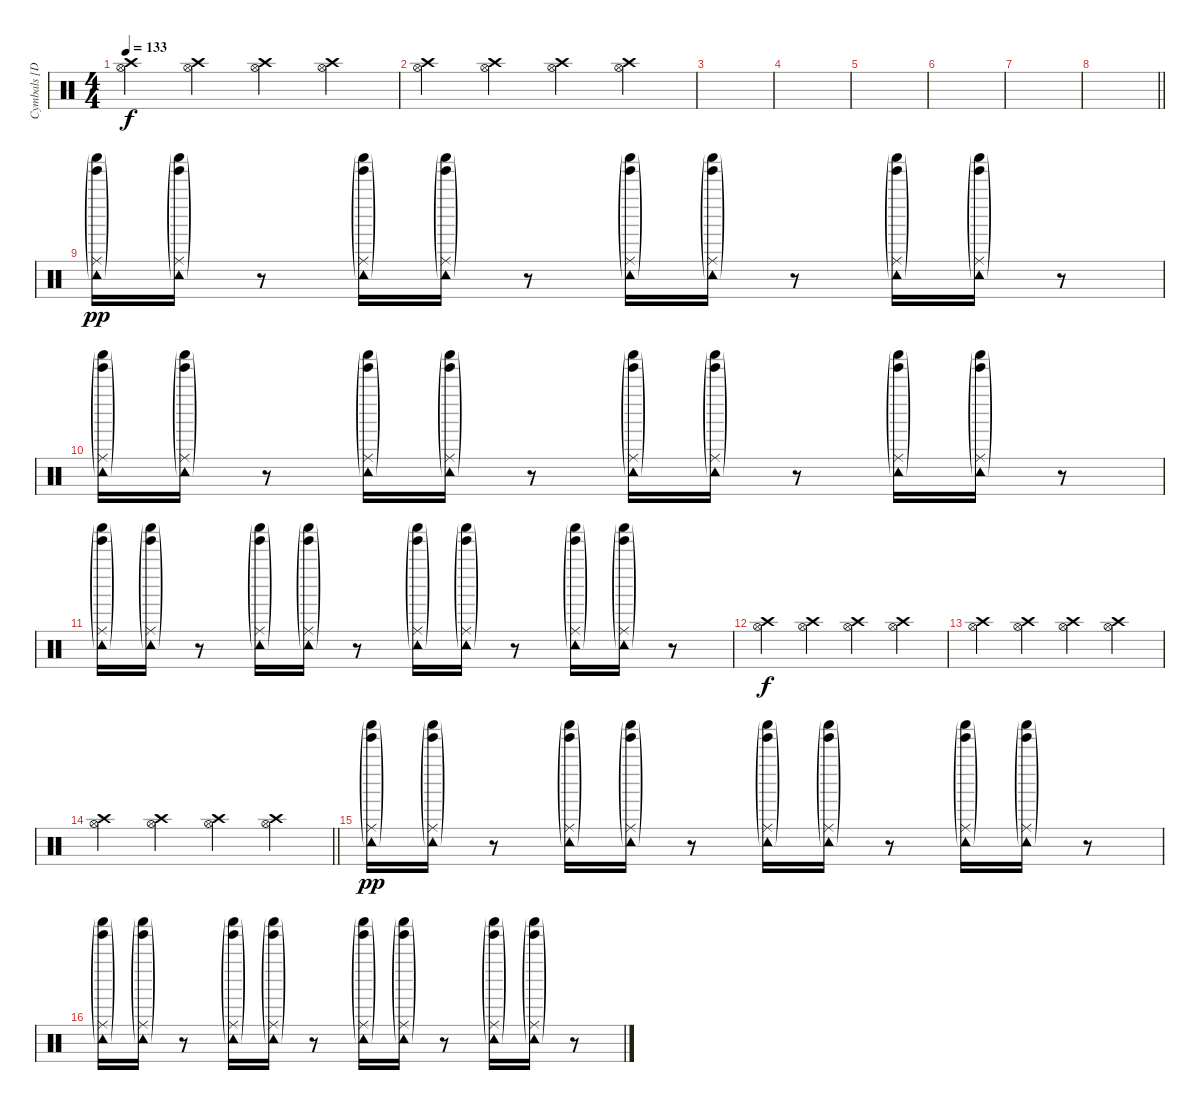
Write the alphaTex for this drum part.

\track ("Cymbals [Dave Grohl]" "Cymbals [D") {instrument percussion}
\staff {score}
\articulation defaults
\ts (4 4)
\tempo 133
\clef neutral
\ks c
("Hi-Hat (open)" "Crash high (hit)").4{dy f} ("Hi-Hat (open)" "Crash high (hit)").4 ("Hi-Hat (open)" "Crash high (hit)").4 ("Hi-Hat (open)" "Crash high (hit)").4 |
("Hi-Hat (open)" "Crash high (hit)").4 ("Hi-Hat (open)" "Crash high (hit)").4 ("Hi-Hat (open)" "Crash high (hit)").4 ("Hi-Hat (open)" "Crash high (hit)").4 |
|
|
|
|
|
\barLineRight lightlight
|
("Ride (middle)"{g} "Tambourine (hit)"{g} "Tinkle Bell (hit)"{g} "Shaker (hit)"{g}).16{dy pp volume 6 balance 4} ("Ride (middle)"{g} "Tambourine (hit)"{g} "Tinkle Bell (hit)"{g} "Shaker (hit)"{g}).16 r.8 ("Ride (middle)"{g} "Tambourine (hit)"{g} "Tinkle Bell (hit)"{g} "Shaker (hit)"{g}).16{balance 12} ("Ride (middle)"{g} "Tambourine (hit)"{g} "Tinkle Bell (hit)"{g} "Shaker (hit)"{g}).16 r.8 ("Ride (middle)"{g} "Tambourine (hit)"{g} "Tinkle Bell (hit)"{g} "Shaker (hit)"{g}).16{balance 4} ("Ride (middle)"{g} "Tambourine (hit)"{g} "Tinkle Bell (hit)"{g} "Shaker (hit)"{g}).16 r.8 ("Ride (middle)"{g} "Tambourine (hit)"{g} "Tinkle Bell (hit)"{g} "Shaker (hit)"{g}).16{balance 12} ("Ride (middle)"{g} "Tambourine (hit)"{g} "Tinkle Bell (hit)"{g} "Shaker (hit)"{g}).16 r.8 |
("Ride (middle)"{g} "Tambourine (hit)"{g} "Tinkle Bell (hit)"{g} "Shaker (hit)"{g}).16{volume 6 balance 4} ("Ride (middle)"{g} "Tambourine (hit)"{g} "Tinkle Bell (hit)"{g} "Shaker (hit)"{g}).16 r.8 ("Ride (middle)"{g} "Tambourine (hit)"{g} "Tinkle Bell (hit)"{g} "Shaker (hit)"{g}).16{balance 12} ("Ride (middle)"{g} "Tambourine (hit)"{g} "Tinkle Bell (hit)"{g} "Shaker (hit)"{g}).16 r.8 ("Ride (middle)"{g} "Tambourine (hit)"{g} "Tinkle Bell (hit)"{g} "Shaker (hit)"{g}).16{balance 4} ("Ride (middle)"{g} "Tambourine (hit)"{g} "Tinkle Bell (hit)"{g} "Shaker (hit)"{g}).16 r.8 ("Ride (middle)"{g} "Tambourine (hit)"{g} "Tinkle Bell (hit)"{g} "Shaker (hit)"{g}).16{balance 12} ("Ride (middle)"{g} "Tambourine (hit)"{g} "Tinkle Bell (hit)"{g} "Shaker (hit)"{g}).16 r.8 |
("Ride (middle)"{g} "Tambourine (hit)"{g} "Tinkle Bell (hit)"{g} "Shaker (hit)"{g}).16{volume 6 balance 4} ("Ride (middle)"{g} "Tambourine (hit)"{g} "Tinkle Bell (hit)"{g} "Shaker (hit)"{g}).16 r.8 ("Ride (middle)"{g} "Tambourine (hit)"{g} "Tinkle Bell (hit)"{g} "Shaker (hit)"{g}).16{balance 12} ("Ride (middle)"{g} "Tambourine (hit)"{g} "Tinkle Bell (hit)"{g} "Shaker (hit)"{g}).16 r.8 ("Ride (middle)"{g} "Tambourine (hit)"{g} "Tinkle Bell (hit)"{g} "Shaker (hit)"{g}).16{balance 4} ("Ride (middle)"{g} "Tambourine (hit)"{g} "Tinkle Bell (hit)"{g} "Shaker (hit)"{g}).16 r.8 ("Ride (middle)"{g} "Tambourine (hit)"{g} "Tinkle Bell (hit)"{g} "Shaker (hit)"{g}).16{balance 12} ("Ride (middle)"{g} "Tambourine (hit)"{g} "Tinkle Bell (hit)"{g} "Shaker (hit)"{g}).16 r.8 |
("Hi-Hat (open)" "Crash high (hit)").4{dy f volume 11 balance 8} ("Hi-Hat (open)" "Crash high (hit)").4 ("Hi-Hat (open)" "Crash high (hit)").4 ("Hi-Hat (open)" "Crash high (hit)").4 |
("Hi-Hat (open)" "Crash high (hit)").4 ("Hi-Hat (open)" "Crash high (hit)").4 ("Hi-Hat (open)" "Crash high (hit)").4 ("Hi-Hat (open)" "Crash high (hit)").4 |
\barLineRight lightlight
("Hi-Hat (open)" "Crash high (hit)").4 ("Hi-Hat (open)" "Crash high (hit)").4 ("Hi-Hat (open)" "Crash high (hit)").4 ("Hi-Hat (open)" "Crash high (hit)").4 |
("Ride (middle)"{g} "Tambourine (hit)"{g} "Tinkle Bell (hit)"{g} "Shaker (hit)"{g}).16{dy pp volume 6 balance 4} ("Ride (middle)"{g} "Tambourine (hit)"{g} "Tinkle Bell (hit)"{g} "Shaker (hit)"{g}).16 r.8 ("Ride (middle)"{g} "Tambourine (hit)"{g} "Tinkle Bell (hit)"{g} "Shaker (hit)"{g}).16{balance 12} ("Ride (middle)"{g} "Tambourine (hit)"{g} "Tinkle Bell (hit)"{g} "Shaker (hit)"{g}).16 r.8 ("Ride (middle)"{g} "Tambourine (hit)"{g} "Tinkle Bell (hit)"{g} "Shaker (hit)"{g}).16{balance 4} ("Ride (middle)"{g} "Tambourine (hit)"{g} "Tinkle Bell (hit)"{g} "Shaker (hit)"{g}).16 r.8 ("Ride (middle)"{g} "Tambourine (hit)"{g} "Tinkle Bell (hit)"{g} "Shaker (hit)"{g}).16{balance 12} ("Ride (middle)"{g} "Tambourine (hit)"{g} "Tinkle Bell (hit)"{g} "Shaker (hit)"{g}).16 r.8 |
("Ride (middle)"{g} "Tambourine (hit)"{g} "Tinkle Bell (hit)"{g} "Shaker (hit)"{g}).16{volume 6 balance 4} ("Ride (middle)"{g} "Tambourine (hit)"{g} "Tinkle Bell (hit)"{g} "Shaker (hit)"{g}).16 r.8 ("Ride (middle)"{g} "Tambourine (hit)"{g} "Tinkle Bell (hit)"{g} "Shaker (hit)"{g}).16{balance 12} ("Ride (middle)"{g} "Tambourine (hit)"{g} "Tinkle Bell (hit)"{g} "Shaker (hit)"{g}).16 r.8 ("Ride (middle)"{g} "Tambourine (hit)"{g} "Tinkle Bell (hit)"{g} "Shaker (hit)"{g}).16{balance 4} ("Ride (middle)"{g} "Tambourine (hit)"{g} "Tinkle Bell (hit)"{g} "Shaker (hit)"{g}).16 r.8 ("Ride (middle)"{g} "Tambourine (hit)"{g} "Tinkle Bell (hit)"{g} "Shaker (hit)"{g}).16{balance 12} ("Ride (middle)"{g} "Tambourine (hit)"{g} "Tinkle Bell (hit)"{g} "Shaker (hit)"{g}).16 r.8
